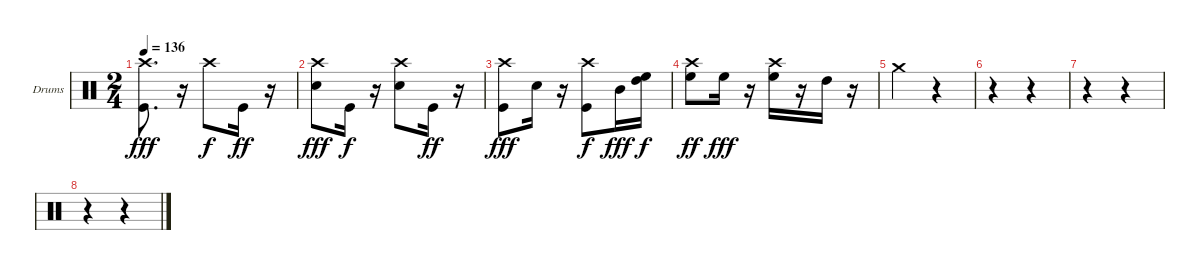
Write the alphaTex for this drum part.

\bracketExtendMode groupsimilarinstruments
\firstSystemTrackNameOrientation horizontal
\otherSystemsTrackNameOrientation horizontal
\track ("Drumkit" "Drums") {solo instrument percussion}
\staff {score}
\articulation defaults
\ts (2 4)
\tempo 136
\clef neutral
\ks c
("Crash high (hit)" "Kick (hit)").8{d dy fff} r.16 "Crash high (hit)".8{dy f} "Kick (hit)".16{dy ff} r.16 |
("Crash high (hit)" "Snare (hit) 2").8{dy fff} "Kick (hit)".16{dy f} r.16 ("Crash high (hit)" "Snare (hit) 2").8 "Kick (hit)".16{dy ff} r.16 |
("Crash high (hit)" "Kick (hit)").8{dy fff} "Snare (hit) 2".16 r.16 ("Crash high (hit)" "Kick (hit)").8{dy f} "Mid Tom (hit)".16{dy fff} ("High Tom (hit)" "High Floor Tom (hit)").16{dy f} |
("Crash high (hit)" "High Floor Tom (hit)").8{dy ff} "High Floor Tom (hit)".16{dy fff} r.16 ("High Floor Tom (hit)" "Crash high (hit)").16 r.16 "High Tom (hit)".16 r.16 |
"Crash medium (hit)".4 r.4 |
r.4 r.4 |
r.4 r.4 |
r.4 r.4
